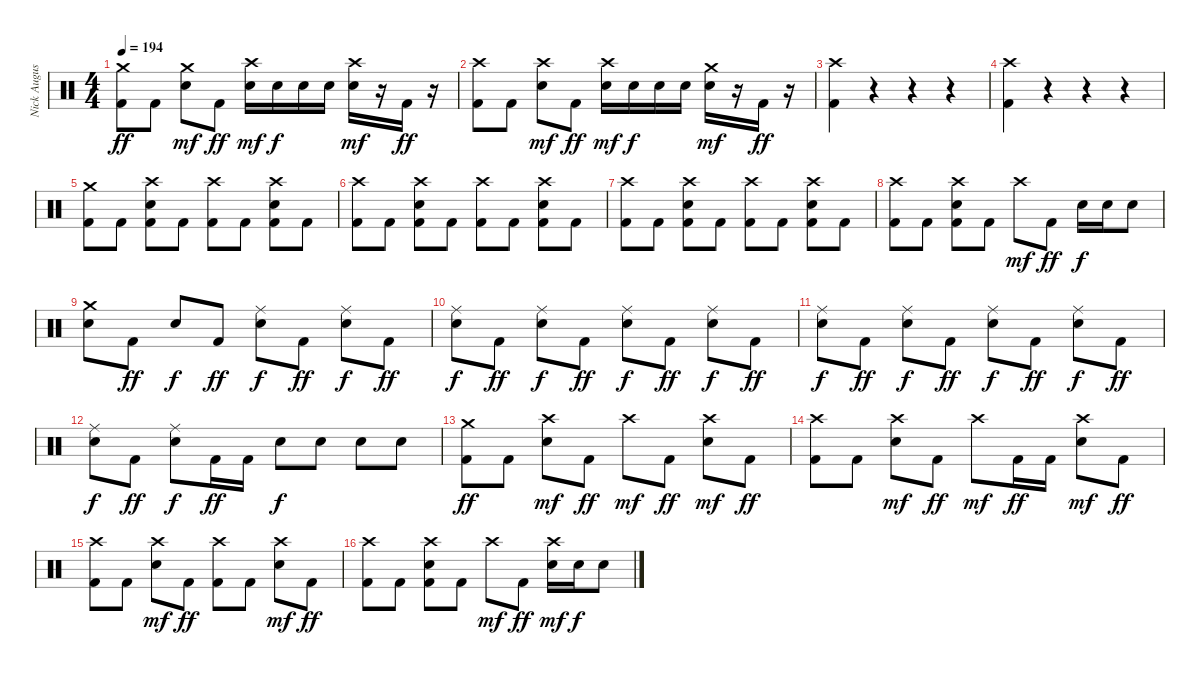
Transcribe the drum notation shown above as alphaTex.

\track ("Nick Augusto" "Nick Augus") {instrument percussion}
\staff {score}
\articulation defaults
\ts (4 4)
\tempo 194
\clef neutral
\ks c
("Crash medium (hit)" "Kick (hit) 2").8{dy ff} "Kick (hit) 2".8 ("Crash medium (hit)" "Electric Snare (hit)").8{dy mf} "Kick (hit) 2".8{dy ff} ("Crash high (hit)" "Electric Snare (hit)").16{dy mf} "Electric Snare (hit)".16{dy f} "Electric Snare (hit)".16 "Electric Snare (hit)".16 ("Crash high (hit)" "Electric Snare (hit)").16{dy mf} r.16 "Kick (hit) 2".16{dy ff} r.16 |
("Crash high (hit)" "Kick (hit) 2").8 "Kick (hit) 2".8 ("Crash high (hit)" "Electric Snare (hit)").8{dy mf} "Kick (hit) 2".8{dy ff} ("Crash high (hit)" "Electric Snare (hit)").16{dy mf} "Electric Snare (hit)".16{dy f} "Electric Snare (hit)".16 "Electric Snare (hit)".16 ("Crash medium (hit)" "Electric Snare (hit)").16{dy mf} r.16 "Kick (hit) 2".16{dy ff} r.16 |
("Crash high (hit)" "Kick (hit) 2").4 r.4 r.4 r.4 |
("Crash high (hit)" "Kick (hit) 2").4 r.4 r.4 r.4 |
("Crash medium (hit)" "Kick (hit) 2").8 "Kick (hit) 2".8 ("Crash high (hit)" "Electric Snare (hit)" "Kick (hit) 2").8 "Kick (hit) 2".8 ("Crash high (hit)" "Kick (hit) 2").8 "Kick (hit) 2".8 ("Crash high (hit)" "Electric Snare (hit)" "Kick (hit) 2").8 "Kick (hit) 2".8 |
("Crash high (hit)" "Kick (hit) 2").8 "Kick (hit) 2".8 ("Crash high (hit)" "Electric Snare (hit)" "Kick (hit) 2").8 "Kick (hit) 2".8 ("Crash high (hit)" "Kick (hit) 2").8 "Kick (hit) 2".8 ("Crash high (hit)" "Electric Snare (hit)" "Kick (hit) 2").8 "Kick (hit) 2".8 |
("Crash high (hit)" "Kick (hit) 2").8 "Kick (hit) 2".8 ("Crash high (hit)" "Electric Snare (hit)" "Kick (hit) 2").8 "Kick (hit) 2".8 ("Crash high (hit)" "Kick (hit) 2").8 "Kick (hit) 2".8 ("Crash high (hit)" "Electric Snare (hit)" "Kick (hit) 2").8 "Kick (hit) 2".8 |
("Crash high (hit)" "Kick (hit) 2").8 "Kick (hit) 2".8 ("Crash high (hit)" "Electric Snare (hit)" "Kick (hit) 2").8 "Kick (hit) 2".8 "Crash high (hit)".8{dy mf} "Kick (hit) 2".8{dy ff} "Electric Snare (hit)".16{dy f} "Electric Snare (hit)".16 "Electric Snare (hit)".8 |
("Crash medium (hit)" "Electric Snare (hit)").8 "Kick (hit) 2".8{dy ff} "Electric Snare (hit)".8{dy f} "Kick (hit) 2".8{dy ff} ("Ride (middle)" "Electric Snare (hit)").8{dy f} "Kick (hit) 2".8{dy ff} ("Ride (middle)" "Electric Snare (hit)").8{dy f} "Kick (hit) 2".8{dy ff} |
("Ride (middle)" "Electric Snare (hit)").8{dy f} "Kick (hit) 2".8{dy ff} ("Ride (middle)" "Electric Snare (hit)").8{dy f} "Kick (hit) 2".8{dy ff} ("Ride (middle)" "Electric Snare (hit)").8{dy f} "Kick (hit) 2".8{dy ff} ("Ride (middle)" "Electric Snare (hit)").8{dy f} "Kick (hit) 2".8{dy ff} |
("Ride (middle)" "Electric Snare (hit)").8{dy f} "Kick (hit) 2".8{dy ff} ("Ride (middle)" "Electric Snare (hit)").8{dy f} "Kick (hit) 2".8{dy ff} ("Ride (middle)" "Electric Snare (hit)").8{dy f} "Kick (hit) 2".8{dy ff} ("Ride (middle)" "Electric Snare (hit)").8{dy f} "Kick (hit) 2".8{dy ff} |
("Ride (middle)" "Electric Snare (hit)").8{dy f} "Kick (hit) 2".8{dy ff} ("Ride (middle)" "Electric Snare (hit)").8{dy f} "Kick (hit) 2".16{dy ff} "Kick (hit) 2".16 "Electric Snare (hit)".8{dy f} "Electric Snare (hit)".8 "Electric Snare (hit)".8 "Electric Snare (hit)".8 |
("Crash medium (hit)" "Kick (hit) 2").8{dy ff} "Kick (hit) 2".8 ("Crash high (hit)" "Electric Snare (hit)").8{dy mf} "Kick (hit) 2".8{dy ff} "Crash high (hit)".8{dy mf} "Kick (hit) 2".8{dy ff} ("Crash high (hit)" "Electric Snare (hit)").8{dy mf} "Kick (hit) 2".8{dy ff} |
("Crash high (hit)" "Kick (hit) 2").8 "Kick (hit) 2".8 ("Crash high (hit)" "Electric Snare (hit)").8{dy mf} "Kick (hit) 2".8{dy ff} "Crash high (hit)".8{dy mf} "Kick (hit) 2".16{dy ff} "Kick (hit) 2".16 ("Crash high (hit)" "Electric Snare (hit)").8{dy mf} "Kick (hit) 2".8{dy ff} |
("Crash high (hit)" "Kick (hit) 2").8 "Kick (hit) 2".8 ("Crash high (hit)" "Electric Snare (hit)").8{dy mf} "Kick (hit) 2".8{dy ff} ("Crash high (hit)" "Kick (hit) 2").8 "Kick (hit) 2".8 ("Crash high (hit)" "Electric Snare (hit)").8{dy mf} "Kick (hit) 2".8{dy ff} |
("Crash high (hit)" "Kick (hit) 2").8 "Kick (hit) 2".8 ("Crash high (hit)" "Electric Snare (hit)" "Kick (hit) 2").8 "Kick (hit) 2".8 "Crash high (hit)".8{dy mf} "Kick (hit) 2".8{dy ff} ("Crash high (hit)" "Electric Snare (hit)").16{dy mf} "Electric Snare (hit)".16{dy f} "Electric Snare (hit)".8
